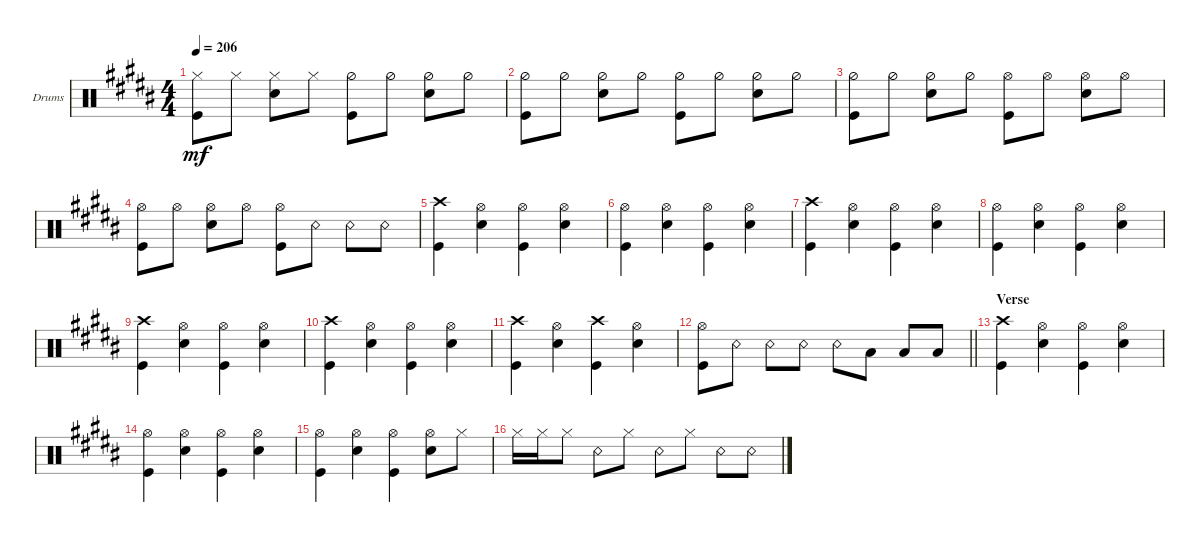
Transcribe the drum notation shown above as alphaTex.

\defaultSystemsLayout 4
\bracketExtendMode groupsimilarinstruments
\firstSystemTrackNameOrientation horizontal
\otherSystemsTrackNameOrientation horizontal
\track ("Drums" "Drums") {instrument percussion}
\staff {score}
\articulation defaults
\ts (4 4)
\tempo 206
\clef neutral
\ks b
("Hi-Hat (closed)" "Kick (hit)").8{dy mf} "Hi-Hat (closed)".8 ("Hi-Hat (closed)" "Snare (hit) 2").8 "Hi-Hat (closed)".8 ("Hi-Hat (half)" "Kick (hit)").8 "Hi-Hat (half)".8 ("Hi-Hat (half)" "Snare (hit) 2").8 "Hi-Hat (half)".8 |
("Hi-Hat (half)" "Kick (hit)").8 "Hi-Hat (half)".8 ("Hi-Hat (half)" "Snare (hit) 2").8 "Hi-Hat (half)".8 ("Hi-Hat (half)" "Kick (hit)").8 "Hi-Hat (half)".8 ("Hi-Hat (half)" "Snare (hit) 2").8 "Hi-Hat (half)".8 |
("Hi-Hat (half)" "Kick (hit)").8 "Hi-Hat (half)".8 ("Hi-Hat (half)" "Snare (hit) 2").8 "Hi-Hat (half)".8 ("Hi-Hat (open)" "Kick (hit)").8 "Hi-Hat (open)".8 ("Hi-Hat (open)" "Snare (hit) 2").8 "Hi-Hat (open)".8 |
("Hi-Hat (open)" "Kick (hit)").8 "Hi-Hat (open)".8 ("Hi-Hat (open)" "Snare (hit) 2").8 "Hi-Hat (open)".8 ("Hi-Hat (open)" "Kick (hit)").8 "Snare (rim shot)".8 "Snare (rim shot)".8 "Snare (rim shot)".8 |
("Kick (hit)" "Crash high (hit)").4 ("Hi-Hat (open)" "Snare (hit) 2").4 ("Hi-Hat (open)" "Kick (hit)").4 ("Hi-Hat (open)" "Snare (hit) 2").4 |
("Kick (hit)" "Hi-Hat (open)").4 ("Hi-Hat (open)" "Snare (hit) 2").4 ("Hi-Hat (open)" "Kick (hit)").4 ("Hi-Hat (open)" "Snare (hit) 2").4 |
("Kick (hit)" "Crash high (hit)").4 ("Hi-Hat (open)" "Snare (hit) 2").4 ("Hi-Hat (open)" "Kick (hit)").4 ("Hi-Hat (open)" "Snare (hit) 2").4 |
("Kick (hit)" "Hi-Hat (open)").4 ("Hi-Hat (open)" "Snare (hit) 2").4 ("Hi-Hat (open)" "Kick (hit)").4 ("Hi-Hat (open)" "Snare (hit) 2").4 |
("Kick (hit)" "Crash high (hit)").4 ("Hi-Hat (open)" "Snare (hit) 2").4 ("Hi-Hat (open)" "Kick (hit)").4 ("Hi-Hat (open)" "Snare (hit) 2").4 |
("Kick (hit)" "Crash high (hit)").4 ("Hi-Hat (open)" "Snare (hit) 2").4 ("Hi-Hat (open)" "Kick (hit)").4 ("Hi-Hat (open)" "Snare (hit) 2").4 |
("Kick (hit)" "Crash high (hit)").4 ("Hi-Hat (open)" "Snare (hit) 2").4 ("Kick (hit)" "Crash high (hit)").4 ("Hi-Hat (open)" "Snare (hit) 2").4 |
\barLineRight lightlight
("Kick (hit)" "Hi-Hat (open)").8 "Snare (rim shot)".8 "Snare (rim shot)".8 "Snare (rim shot)".8 "Snare (rim shot)".8 "Low Tom (hit)".8 "Low Tom (hit)".8 "Low Tom (hit)".8 |
\section ("" "Verse")
("Kick (hit)" "Crash high (hit)").4 ("Hi-Hat (open)" "Snare (hit) 2").4 ("Hi-Hat (open)" "Kick (hit)").4 ("Hi-Hat (open)" "Snare (hit) 2").4 |
("Hi-Hat (open)" "Kick (hit)").4 ("Hi-Hat (open)" "Snare (hit) 2").4 ("Hi-Hat (open)" "Kick (hit)").4 ("Hi-Hat (open)" "Snare (hit) 2").4 |
("Hi-Hat (open)" "Kick (hit)").4 ("Hi-Hat (open)" "Snare (hit) 2").4 ("Hi-Hat (open)" "Kick (hit)").4 ("Hi-Hat (open)" "Snare (hit) 2").8 "Hi-Hat (closed)".8 |
"Hi-Hat (closed)".16 "Hi-Hat (closed)".16 "Hi-Hat (closed)".8 "Snare (rim shot)".8 "Hi-Hat (closed)".8 "Snare (rim shot)".8 "Hi-Hat (closed)".8 "Snare (rim shot)".8 "Snare (rim shot)".8
